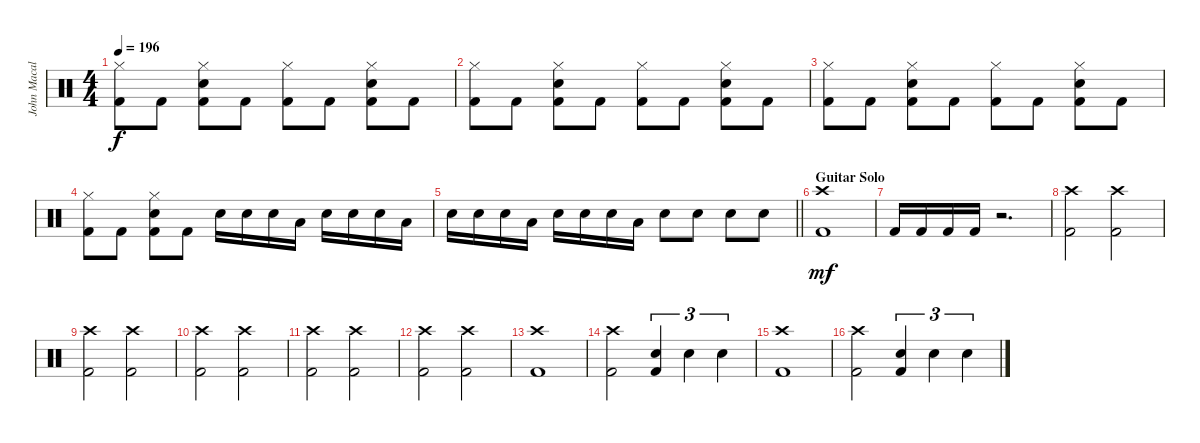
\track ("John Macaluso" "John Macal") {instrument percussion}
\staff {score}
\articulation defaults
\ts (4 4)
\tempo 196
\clef neutral
\ks c
("Hi-Hat (closed)" "Kick (hit) 2").8{dy f} "Kick (hit) 2".8 ("Electric Snare (hit)" "Hi-Hat (closed)" "Kick (hit) 2").8 "Kick (hit) 2".8 ("Hi-Hat (closed)" "Kick (hit) 2").8 "Kick (hit) 2".8 ("Electric Snare (hit)" "Hi-Hat (closed)" "Kick (hit) 2").8 "Kick (hit) 2".8 |
("Hi-Hat (closed)" "Kick (hit) 2").8 "Kick (hit) 2".8 ("Electric Snare (hit)" "Hi-Hat (closed)" "Kick (hit) 2").8 "Kick (hit) 2".8 ("Hi-Hat (closed)" "Kick (hit) 2").8 "Kick (hit) 2".8 ("Electric Snare (hit)" "Hi-Hat (closed)" "Kick (hit) 2").8 "Kick (hit) 2".8 |
("Hi-Hat (closed)" "Kick (hit) 2").8 "Kick (hit) 2".8 ("Electric Snare (hit)" "Hi-Hat (closed)" "Kick (hit) 2").8 "Kick (hit) 2".8 ("Hi-Hat (closed)" "Kick (hit) 2").8 "Kick (hit) 2".8 ("Electric Snare (hit)" "Hi-Hat (closed)" "Kick (hit) 2").8 "Kick (hit) 2".8 |
("Hi-Hat (closed)" "Kick (hit) 2").8 "Kick (hit) 2".8 ("Electric Snare (hit)" "Hi-Hat (closed)" "Kick (hit) 2").8 "Kick (hit) 2".8 "Electric Snare (hit)".16 "Electric Snare (hit)".16 "Electric Snare (hit)".16 "Low Tom (hit)".16 "Electric Snare (hit)".16 "Electric Snare (hit)".16 "Electric Snare (hit)".16 "Low Tom (hit)".16 |
\barLineRight lightlight "Electric Snare (hit)".16 "Electric Snare (hit)".16 "Electric Snare (hit)".16 "Low Tom (hit)".16 "Electric Snare (hit)".16 "Electric Snare (hit)".16 "Electric Snare (hit)".16 "Low Tom (hit)".16 "Electric Snare (hit)".8 "Electric Snare (hit)".8 "Electric Snare (hit)".8 "Electric Snare (hit)".8
|
\section ("" "Guitar Solo")
("Crash high (hit)" "Kick (hit) 2").1{dy mf} |
"Kick (hit) 2".16 "Kick (hit) 2".16 "Kick (hit) 2".16 "Kick (hit) 2".16 r.2{d} |
("Crash high (hit)" "Kick (hit) 2").2 ("Crash high (hit)" "Kick (hit) 2").2 |
("Crash high (hit)" "Kick (hit) 2").2 ("Crash high (hit)" "Kick (hit) 2").2 |
("Crash high (hit)" "Kick (hit) 2").2 ("Crash high (hit)" "Kick (hit) 2").2 |
("Crash high (hit)" "Kick (hit) 2").2 ("Crash high (hit)" "Kick (hit) 2").2 |
("Crash high (hit)" "Kick (hit) 2").2 ("Crash high (hit)" "Kick (hit) 2").2 |
("Crash high (hit)" "Kick (hit) 2").1 |
("Crash high (hit)" "Kick (hit) 2").2 ("Electric Snare (hit)" "Kick (hit) 2").4{tu (3 2)} "Electric Snare (hit)".4{tu (3 2)} "Electric Snare (hit)".4{tu (3 2)} |
("Crash high (hit)" "Kick (hit) 2").1 |
("Crash high (hit)" "Kick (hit) 2").2 ("Electric Snare (hit)" "Kick (hit) 2").4{tu (3 2)} "Electric Snare (hit)".4{tu (3 2)} "Electric Snare (hit)".4{tu (3 2)}
